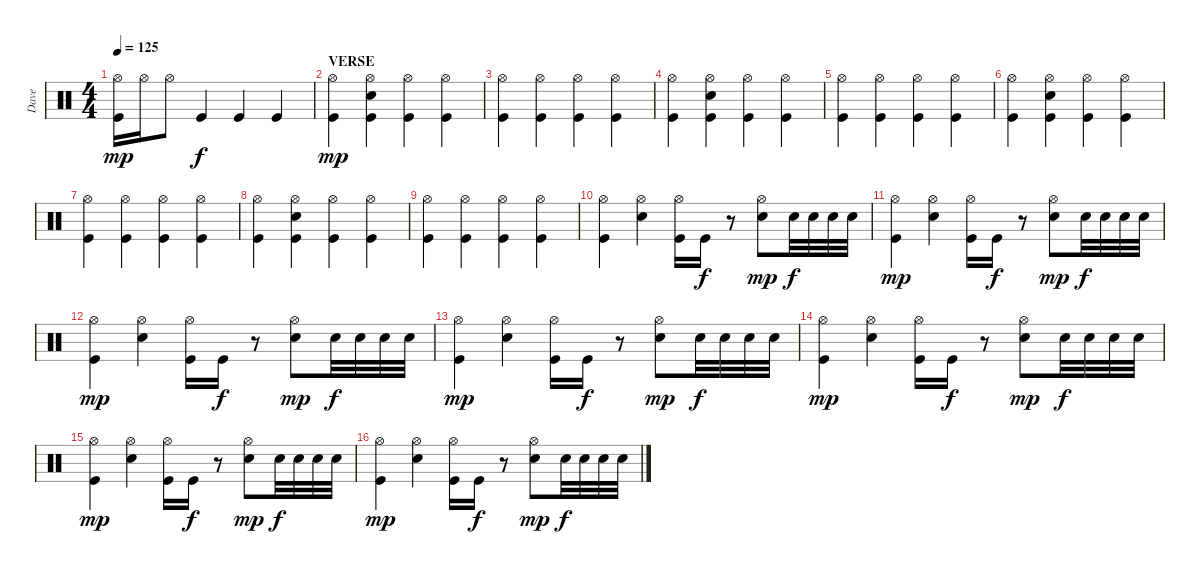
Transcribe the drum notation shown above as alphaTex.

\track ("Dave" "Dave") {instrument percussion}
\staff {score}
\articulation defaults
\ts (4 4)
\tempo 125
\clef neutral
\ks c
("Hi-Hat (open)" "Kick (hit)").16{dy mp} "Hi-Hat (open)".16 "Hi-Hat (open)".8 "Kick (hit)".4{dy f} "Kick (hit)".4 "Kick (hit)".4 |
\section ("" "VERSE")
("Hi-Hat (open)" "Kick (hit)").4{dy mp} ("Hi-Hat (open)" "Snare (hit) 2" "Kick (hit)").4 ("Hi-Hat (open)" "Kick (hit)").4 ("Hi-Hat (open)" "Kick (hit)").4 |
("Hi-Hat (open)" "Kick (hit)").4 ("Hi-Hat (open)" "Kick (hit)").4 ("Hi-Hat (open)" "Kick (hit)").4 ("Hi-Hat (open)" "Kick (hit)").4 |
("Hi-Hat (open)" "Kick (hit)").4 ("Hi-Hat (open)" "Snare (hit) 2" "Kick (hit)").4 ("Hi-Hat (open)" "Kick (hit)").4 ("Hi-Hat (open)" "Kick (hit)").4 |
("Hi-Hat (open)" "Kick (hit)").4 ("Hi-Hat (open)" "Kick (hit)").4 ("Hi-Hat (open)" "Kick (hit)").4 ("Hi-Hat (open)" "Kick (hit)").4 |
("Hi-Hat (open)" "Kick (hit)").4 ("Hi-Hat (open)" "Snare (hit) 2" "Kick (hit)").4 ("Hi-Hat (open)" "Kick (hit)").4 ("Hi-Hat (open)" "Kick (hit)").4 |
("Hi-Hat (open)" "Kick (hit)").4 ("Hi-Hat (open)" "Kick (hit)").4 ("Hi-Hat (open)" "Kick (hit)").4 ("Hi-Hat (open)" "Kick (hit)").4 |
("Hi-Hat (open)" "Kick (hit)").4 ("Hi-Hat (open)" "Snare (hit) 2" "Kick (hit)").4 ("Hi-Hat (open)" "Kick (hit)").4 ("Hi-Hat (open)" "Kick (hit)").4 |
("Hi-Hat (open)" "Kick (hit)").4 ("Hi-Hat (open)" "Kick (hit)").4 ("Hi-Hat (open)" "Kick (hit)").4 ("Hi-Hat (open)" "Kick (hit)").4 |
("Hi-Hat (open)" "Kick (hit)").4 ("Hi-Hat (open)" "Snare (hit) 2").4 ("Hi-Hat (open)" "Kick (hit)").16 "Kick (hit)".16{dy f} r.8 ("Hi-Hat (open)" "Snare (hit) 2").8{dy mp} "Snare (hit) 2".32{dy f} "Snare (hit) 2".32 "Snare (hit) 2".32 "Snare (hit) 2".32 |
("Hi-Hat (open)" "Kick (hit)").4{dy mp} ("Hi-Hat (open)" "Snare (hit) 2").4 ("Hi-Hat (open)" "Kick (hit)").16 "Kick (hit)".16{dy f} r.8 ("Hi-Hat (open)" "Snare (hit) 2").8{dy mp} "Snare (hit) 2".32{dy f} "Snare (hit) 2".32 "Snare (hit) 2".32 "Snare (hit) 2".32 |
("Hi-Hat (open)" "Kick (hit)").4{dy mp} ("Hi-Hat (open)" "Snare (hit) 2").4 ("Hi-Hat (open)" "Kick (hit)").16 "Kick (hit)".16{dy f} r.8 ("Hi-Hat (open)" "Snare (hit) 2").8{dy mp} "Snare (hit) 2".32{dy f} "Snare (hit) 2".32 "Snare (hit) 2".32 "Snare (hit) 2".32 |
("Hi-Hat (open)" "Kick (hit)").4{dy mp} ("Hi-Hat (open)" "Snare (hit) 2").4 ("Hi-Hat (open)" "Kick (hit)").16 "Kick (hit)".16{dy f} r.8 ("Hi-Hat (open)" "Snare (hit) 2").8{dy mp} "Snare (hit) 2".32{dy f} "Snare (hit) 2".32 "Snare (hit) 2".32 "Snare (hit) 2".32 |
("Hi-Hat (open)" "Kick (hit)").4{dy mp} ("Hi-Hat (open)" "Snare (hit) 2").4 ("Hi-Hat (open)" "Kick (hit)").16 "Kick (hit)".16{dy f} r.8 ("Hi-Hat (open)" "Snare (hit) 2").8{dy mp} "Snare (hit) 2".32{dy f} "Snare (hit) 2".32 "Snare (hit) 2".32 "Snare (hit) 2".32 |
("Hi-Hat (open)" "Kick (hit)").4{dy mp} ("Hi-Hat (open)" "Snare (hit) 2").4 ("Hi-Hat (open)" "Kick (hit)").16 "Kick (hit)".16{dy f} r.8 ("Hi-Hat (open)" "Snare (hit) 2").8{dy mp} "Snare (hit) 2".32{dy f} "Snare (hit) 2".32 "Snare (hit) 2".32 "Snare (hit) 2".32 |
("Hi-Hat (open)" "Kick (hit)").4{dy mp} ("Hi-Hat (open)" "Snare (hit) 2").4 ("Hi-Hat (open)" "Kick (hit)").16 "Kick (hit)".16{dy f} r.8 ("Hi-Hat (open)" "Snare (hit) 2").8{dy mp} "Snare (hit) 2".32{dy f} "Snare (hit) 2".32 "Snare (hit) 2".32 "Snare (hit) 2".32
